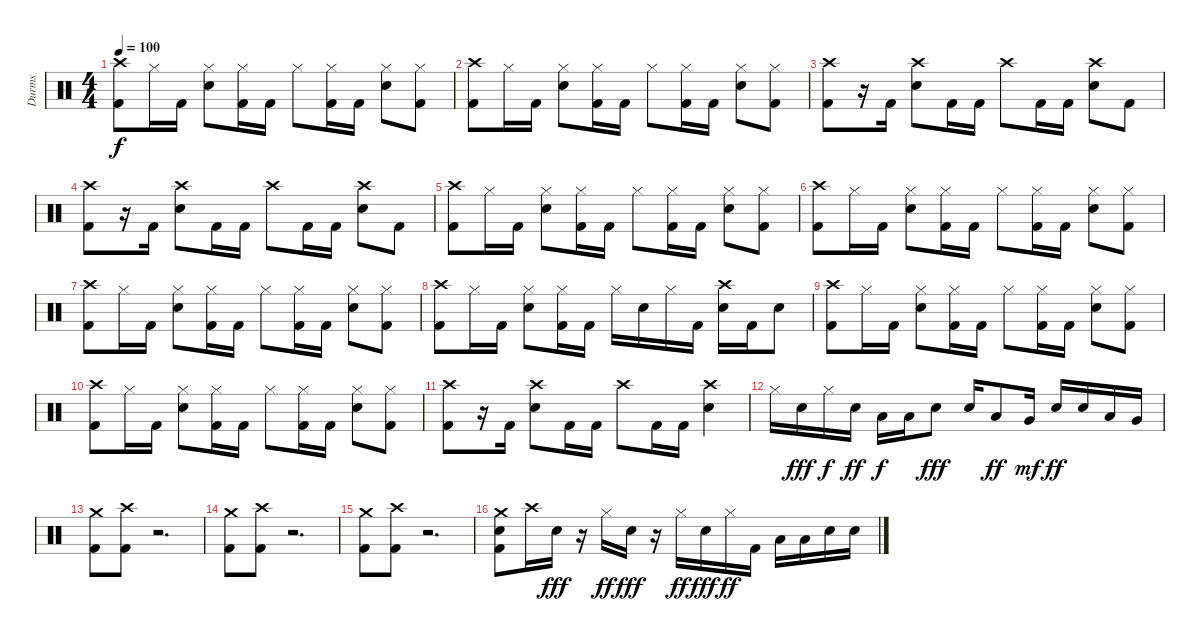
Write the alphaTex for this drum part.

\track ("Durms" "Durms") {instrument percussion}
\staff {score}
\articulation defaults
\ts (4 4)
\tempo 100
\clef neutral
\ks c
("Crash high (hit)" "Kick (hit) 2").8{dy f} "Hi-Hat (closed)".16 "Kick (hit) 2".16 ("Hi-Hat (closed)" "Electric Snare (hit)").8 ("Hi-Hat (closed)" "Kick (hit) 2").16 "Kick (hit) 2".16 "Hi-Hat (closed)".8 ("Hi-Hat (closed)" "Kick (hit) 2").16 "Kick (hit) 2".16 ("Hi-Hat (closed)" "Electric Snare (hit)").8 ("Hi-Hat (closed)" "Kick (hit) 2").8 |
("Crash high (hit)" "Kick (hit) 2").8 "Hi-Hat (closed)".16 "Kick (hit) 2".16 ("Hi-Hat (closed)" "Electric Snare (hit)").8 ("Hi-Hat (closed)" "Kick (hit) 2").16 "Kick (hit) 2".16 "Hi-Hat (closed)".8 ("Hi-Hat (closed)" "Kick (hit) 2").16 "Kick (hit) 2".16 ("Hi-Hat (closed)" "Electric Snare (hit)").8 ("Hi-Hat (closed)" "Kick (hit) 2").8 |
("Crash high (hit)" "Kick (hit) 2").8 r.16 "Kick (hit) 2".16 ("Crash high (hit)" "Electric Snare (hit)").8 "Kick (hit) 2".16 "Kick (hit) 2".16 "Crash high (hit)".8 "Kick (hit) 2".16 "Kick (hit) 2".16 ("Crash high (hit)" "Electric Snare (hit)").8 "Kick (hit) 2".8 |
("Crash high (hit)" "Kick (hit) 2").8 r.16 "Kick (hit) 2".16 ("Crash high (hit)" "Electric Snare (hit)").8 "Kick (hit) 2".16 "Kick (hit) 2".16 "Crash high (hit)".8 "Kick (hit) 2".16 "Kick (hit) 2".16 ("Crash high (hit)" "Electric Snare (hit)").8 "Kick (hit) 2".8 |
("Crash high (hit)" "Kick (hit) 2").8 "Hi-Hat (closed)".16 "Kick (hit) 2".16 ("Hi-Hat (closed)" "Electric Snare (hit)").8 ("Hi-Hat (closed)" "Kick (hit) 2").16 "Kick (hit) 2".16 "Hi-Hat (closed)".8 ("Hi-Hat (closed)" "Kick (hit) 2").16 "Kick (hit) 2".16 ("Hi-Hat (closed)" "Electric Snare (hit)").8 ("Hi-Hat (closed)" "Kick (hit) 2").8 |
("Crash high (hit)" "Kick (hit) 2").8 "Hi-Hat (closed)".16 "Kick (hit) 2".16 ("Hi-Hat (closed)" "Electric Snare (hit)").8 ("Hi-Hat (closed)" "Kick (hit) 2").16 "Kick (hit) 2".16 "Hi-Hat (closed)".8 ("Hi-Hat (closed)" "Kick (hit) 2").16 "Kick (hit) 2".16 ("Hi-Hat (closed)" "Electric Snare (hit)").8 ("Hi-Hat (closed)" "Kick (hit) 2").8 |
("Crash high (hit)" "Kick (hit) 2").8 "Hi-Hat (closed)".16 "Kick (hit) 2".16 ("Hi-Hat (closed)" "Electric Snare (hit)").8 ("Hi-Hat (closed)" "Kick (hit) 2").16 "Kick (hit) 2".16 "Hi-Hat (closed)".8 ("Hi-Hat (closed)" "Kick (hit) 2").16 "Kick (hit) 2".16 ("Hi-Hat (closed)" "Electric Snare (hit)").8 ("Hi-Hat (closed)" "Kick (hit) 2").8 |
("Crash high (hit)" "Kick (hit) 2").8 "Hi-Hat (closed)".16 "Kick (hit) 2".16 ("Hi-Hat (closed)" "Electric Snare (hit)").8 ("Hi-Hat (closed)" "Kick (hit) 2").16 "Kick (hit) 2".16 "Hi-Hat (closed)".16 "Electric Snare (hit)".16 "Hi-Hat (closed)".16 "Kick (hit) 2".16 ("Crash high (hit)" "Electric Snare (hit)").16 "Kick (hit) 2".16 "Electric Snare (hit)".8 |
("Crash high (hit)" "Kick (hit) 2").8 "Hi-Hat (closed)".16 "Kick (hit) 2".16 ("Hi-Hat (closed)" "Electric Snare (hit)").8 ("Hi-Hat (closed)" "Kick (hit) 2").16 "Kick (hit) 2".16 "Hi-Hat (closed)".8 ("Hi-Hat (closed)" "Kick (hit) 2").16 "Kick (hit) 2".16 ("Hi-Hat (closed)" "Electric Snare (hit)").8 ("Hi-Hat (closed)" "Kick (hit) 2").8 |
("Crash high (hit)" "Kick (hit) 2").8 "Hi-Hat (closed)".16 "Kick (hit) 2".16 ("Hi-Hat (closed)" "Electric Snare (hit)").8 ("Hi-Hat (closed)" "Kick (hit) 2").16 "Kick (hit) 2".16 "Hi-Hat (closed)".8 ("Hi-Hat (closed)" "Kick (hit) 2").16 "Kick (hit) 2".16 ("Hi-Hat (closed)" "Electric Snare (hit)").8 ("Hi-Hat (closed)" "Kick (hit) 2").8 |
("Crash high (hit)" "Kick (hit) 2").8 r.16 "Kick (hit) 2".16 ("Crash high (hit)" "Electric Snare (hit)").8 "Kick (hit) 2".16 "Kick (hit) 2".16 "Crash high (hit)".8 "Kick (hit) 2".16 "Kick (hit) 2".16 ("Crash high (hit)" "Electric Snare (hit)").4 |
"Hi-Hat (closed)".16 "Electric Snare (hit)".16{dy fff} "Hi-Hat (closed)".16{dy f} "Electric Snare (hit)".16{dy ff} "Low Tom (hit)".16{dy f} "Low Tom (hit)".16 "Electric Snare (hit)".8{dy fff} "Electric Snare (hit)".16 "Low Tom (hit)".8{dy ff} "Very Low Tom (hit)".16{dy mf} "Electric Snare (hit)".16{dy ff} "Electric Snare (hit)".16 "Low Tom (hit)".16 "Very Low Tom (hit)".16 |
("Crash medium (hit)" "Kick (hit) 2").8 ("Crash high (hit)" "Kick (hit) 2").8 r.2{d} |
("Crash medium (hit)" "Kick (hit) 2").8 ("Crash high (hit)" "Kick (hit) 2").8 r.2{d} |
("Crash medium (hit)" "Kick (hit) 2").8 ("Crash high (hit)" "Kick (hit) 2").8 r.2{d} |
("Crash medium (hit)" "Electric Snare (hit)" "Kick (hit) 2").8 "Crash high (hit)".16 "Electric Snare (hit)".16{dy fff} r.16 "Hi-Hat (closed)".16{dy ff} "Electric Snare (hit)".16{dy fff} r.16 "Hi-Hat (closed)".16{dy ff} "Electric Snare (hit)".16{dy fff} "Hi-Hat (closed)".16{dy ff} "Kick (hit) 2".16 "Low Tom (hit)".16 "Low Tom (hit)".16 "Electric Snare (hit)".16 "Electric Snare (hit)".16
